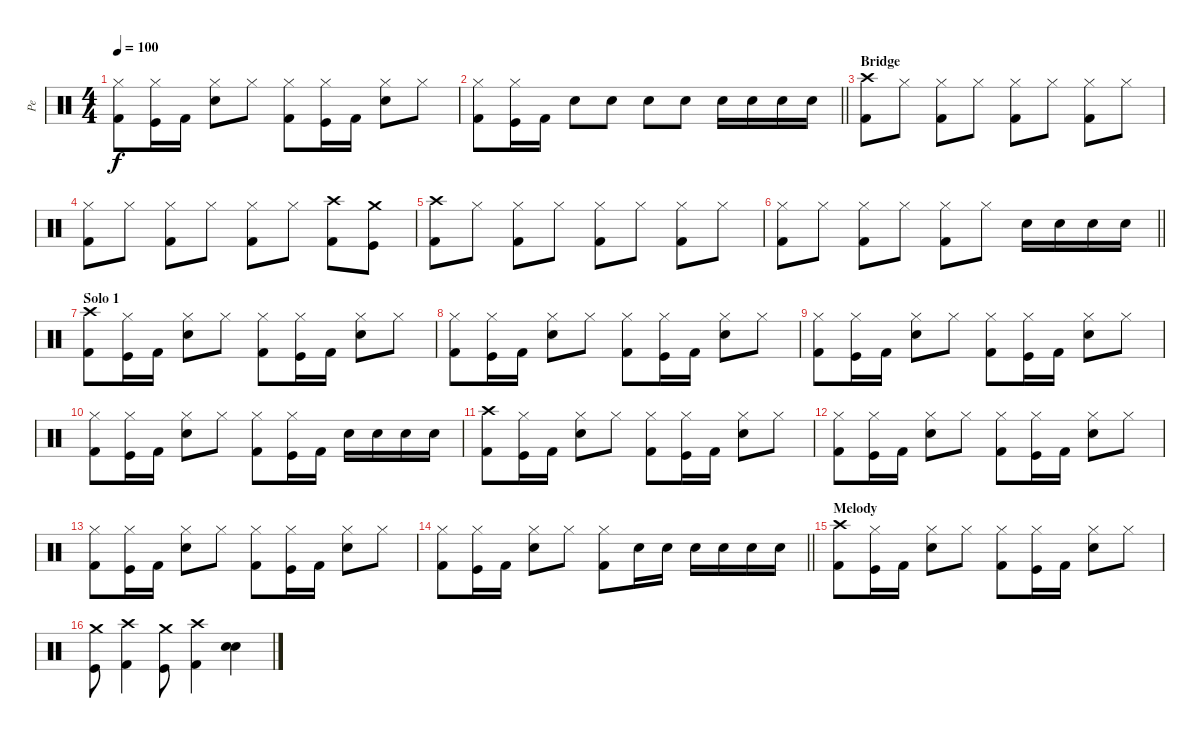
\track ("Pe" "Pe") {instrument percussion}
\staff {score}
\articulation defaults
\ts (4 4)
\tempo 100
\clef neutral
\ks c
("Kick (hit) 2" "Hi-Hat (closed)").8{dy f} ("Kick (hit)" "Hi-Hat (closed)").16 "Kick (hit) 2".16 ("Electric Snare (hit)" "Hi-Hat (closed)").8 "Hi-Hat (closed)".8 ("Kick (hit) 2" "Hi-Hat (closed)").8 ("Kick (hit)" "Hi-Hat (closed)").16 "Kick (hit) 2".16 ("Electric Snare (hit)" "Hi-Hat (closed)").8 "Hi-Hat (closed)".8 |
\barLineRight lightlight
("Kick (hit) 2" "Hi-Hat (closed)").8 ("Kick (hit)" "Hi-Hat (closed)").16 "Kick (hit) 2".16 "Electric Snare (hit)".8 "Electric Snare (hit)".8 "Electric Snare (hit)".8 "Electric Snare (hit)".8 "Electric Snare (hit)".16 "Electric Snare (hit)".16 "Electric Snare (hit)".16 "Electric Snare (hit)".16 |
\section ("" "Bridge")
("Kick (hit) 2" "Crash high (hit)").8 "Hi-Hat (closed)".8 ("Kick (hit) 2" "Hi-Hat (closed)").8 "Hi-Hat (closed)".8 ("Kick (hit) 2" "Hi-Hat (closed)").8 "Hi-Hat (closed)".8 ("Kick (hit) 2" "Hi-Hat (closed)").8 "Hi-Hat (closed)".8 |
("Kick (hit) 2" "Hi-Hat (closed)").8 "Hi-Hat (closed)".8 ("Kick (hit) 2" "Hi-Hat (closed)").8 "Hi-Hat (closed)".8 ("Kick (hit) 2" "Hi-Hat (closed)").8 "Hi-Hat (closed)".8 ("Kick (hit) 2" "Crash high (hit)").8 ("Kick (hit)" "Crash medium (hit)").8 |
("Kick (hit) 2" "Crash high (hit)").8 "Hi-Hat (closed)".8 ("Kick (hit) 2" "Hi-Hat (closed)").8 "Hi-Hat (closed)".8 ("Kick (hit) 2" "Hi-Hat (closed)").8 "Hi-Hat (closed)".8 ("Kick (hit) 2" "Hi-Hat (closed)").8 "Hi-Hat (closed)".8 |
\barLineRight lightlight
("Kick (hit) 2" "Hi-Hat (closed)").8 "Hi-Hat (closed)".8 ("Kick (hit) 2" "Hi-Hat (closed)").8 "Hi-Hat (closed)".8 ("Kick (hit) 2" "Hi-Hat (closed)").8 "Hi-Hat (closed)".8 "Electric Snare (hit)".16 "Electric Snare (hit)".16 "Electric Snare (hit)".16 "Electric Snare (hit)".16 |
\section ("" "Solo 1")
("Kick (hit) 2" "Crash high (hit)").8 ("Kick (hit)" "Hi-Hat (closed)").16 "Kick (hit) 2".16 ("Electric Snare (hit)" "Hi-Hat (closed)").8 "Hi-Hat (closed)".8 ("Kick (hit) 2" "Hi-Hat (closed)").8 ("Kick (hit)" "Hi-Hat (closed)").16 "Kick (hit) 2".16 ("Electric Snare (hit)" "Hi-Hat (closed)").8 "Hi-Hat (closed)".8 |
("Kick (hit) 2" "Hi-Hat (closed)").8 ("Kick (hit)" "Hi-Hat (closed)").16 "Kick (hit) 2".16 ("Electric Snare (hit)" "Hi-Hat (closed)").8 "Hi-Hat (closed)".8 ("Kick (hit) 2" "Hi-Hat (closed)").8 ("Kick (hit)" "Hi-Hat (closed)").16 "Kick (hit) 2".16 ("Electric Snare (hit)" "Hi-Hat (closed)").8 "Hi-Hat (closed)".8 |
("Kick (hit) 2" "Hi-Hat (closed)").8 ("Kick (hit)" "Hi-Hat (closed)").16 "Kick (hit) 2".16 ("Electric Snare (hit)" "Hi-Hat (closed)").8 "Hi-Hat (closed)".8 ("Kick (hit) 2" "Hi-Hat (closed)").8 ("Kick (hit)" "Hi-Hat (closed)").16 "Kick (hit) 2".16 ("Electric Snare (hit)" "Hi-Hat (closed)").8 "Hi-Hat (closed)".8 |
("Kick (hit) 2" "Hi-Hat (closed)").8 ("Kick (hit)" "Hi-Hat (closed)").16 "Kick (hit) 2".16 ("Electric Snare (hit)" "Hi-Hat (closed)").8 "Hi-Hat (closed)".8 ("Kick (hit) 2" "Hi-Hat (closed)").8 ("Kick (hit)" "Hi-Hat (closed)").16 "Kick (hit) 2".16 "Electric Snare (hit)".16 "Electric Snare (hit)".16 "Electric Snare (hit)".16 "Electric Snare (hit)".16 |
("Kick (hit) 2" "Crash high (hit)").8 ("Kick (hit)" "Hi-Hat (closed)").16 "Kick (hit) 2".16 ("Electric Snare (hit)" "Hi-Hat (closed)").8 "Hi-Hat (closed)".8 ("Kick (hit) 2" "Hi-Hat (closed)").8 ("Kick (hit)" "Hi-Hat (closed)").16 "Kick (hit) 2".16 ("Electric Snare (hit)" "Hi-Hat (closed)").8 "Hi-Hat (closed)".8 |
("Kick (hit) 2" "Hi-Hat (closed)").8 ("Kick (hit)" "Hi-Hat (closed)").16 "Kick (hit) 2".16 ("Electric Snare (hit)" "Hi-Hat (closed)").8 "Hi-Hat (closed)".8 ("Kick (hit) 2" "Hi-Hat (closed)").8 ("Kick (hit)" "Hi-Hat (closed)").16 "Kick (hit) 2".16 ("Electric Snare (hit)" "Hi-Hat (closed)").8 "Hi-Hat (closed)".8 |
("Kick (hit) 2" "Hi-Hat (closed)").8 ("Kick (hit)" "Hi-Hat (closed)").16 "Kick (hit) 2".16 ("Electric Snare (hit)" "Hi-Hat (closed)").8 "Hi-Hat (closed)".8 ("Kick (hit) 2" "Hi-Hat (closed)").8 ("Kick (hit)" "Hi-Hat (closed)").16 "Kick (hit) 2".16 ("Electric Snare (hit)" "Hi-Hat (closed)").8 "Hi-Hat (closed)".8 |
\barLineRight lightlight
("Kick (hit) 2" "Hi-Hat (closed)").8 ("Kick (hit)" "Hi-Hat (closed)").16 "Kick (hit) 2".16 ("Electric Snare (hit)" "Hi-Hat (closed)").8 "Hi-Hat (closed)".8 ("Kick (hit) 2" "Hi-Hat (closed)").8 "Electric Snare (hit)".16 "Electric Snare (hit)".16 "Electric Snare (hit)".16 "Electric Snare (hit)".16 "Electric Snare (hit)".16 "Electric Snare (hit)".16 |
\section ("" "Melody")
("Kick (hit) 2" "Crash high (hit)").8 ("Kick (hit)" "Hi-Hat (closed)").16 "Kick (hit) 2".16 ("Electric Snare (hit)" "Hi-Hat (closed)").8 "Hi-Hat (closed)".8 ("Kick (hit) 2" "Hi-Hat (closed)").8 ("Kick (hit)" "Hi-Hat (closed)").16 "Kick (hit) 2".16 ("Electric Snare (hit)" "Hi-Hat (closed)").8 "Hi-Hat (closed)".8 |
("Kick (hit)" "Crash medium (hit)").8 ("Kick (hit) 2" "Crash high (hit)").4 ("Kick (hit)" "Crash medium (hit)").8 ("Kick (hit) 2" "Crash high (hit)").4 ("Electric Snare (hit)" "Electric Snare (hit)").4
